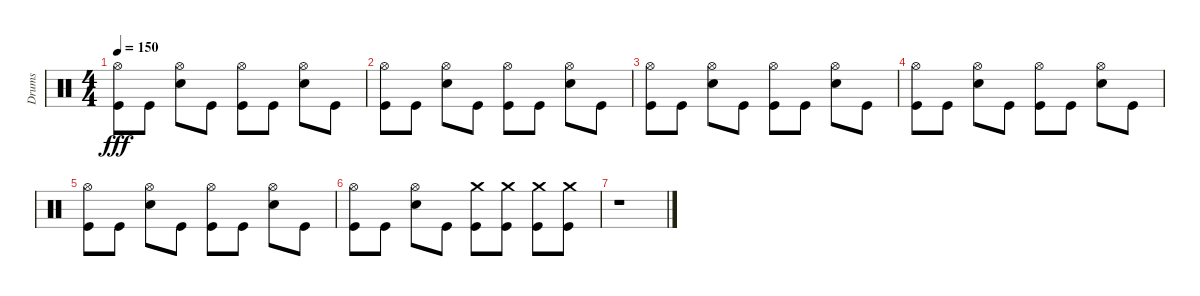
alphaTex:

\track ("Drums" "Drums") {instrument percussion}
\staff {score}
\articulation defaults
\ts (4 4)
\tempo 150
\clef neutral
\ks c
("Hi-Hat (open)" "Kick (hit)").8{dy fff} "Kick (hit)".8 ("Hi-Hat (open)" "Snare (hit) 2").8 "Kick (hit)".8 ("Hi-Hat (open)" "Kick (hit)").8 "Kick (hit)".8 ("Hi-Hat (open)" "Snare (hit) 2").8 "Kick (hit)".8 |
("Hi-Hat (open)" "Kick (hit)").8 "Kick (hit)".8 ("Hi-Hat (open)" "Snare (hit) 2").8 "Kick (hit)".8 ("Hi-Hat (open)" "Kick (hit)").8 "Kick (hit)".8 ("Hi-Hat (open)" "Snare (hit) 2").8 "Kick (hit)".8 |
("Hi-Hat (open)" "Kick (hit)").8 "Kick (hit)".8 ("Hi-Hat (open)" "Snare (hit) 2").8 "Kick (hit)".8 ("Hi-Hat (open)" "Kick (hit)").8 "Kick (hit)".8 ("Hi-Hat (open)" "Snare (hit) 2").8 "Kick (hit)".8 |
("Hi-Hat (open)" "Kick (hit)").8 "Kick (hit)".8 ("Hi-Hat (open)" "Snare (hit) 2").8 "Kick (hit)".8 ("Hi-Hat (open)" "Kick (hit)").8 "Kick (hit)".8 ("Hi-Hat (open)" "Snare (hit) 2").8 "Kick (hit)".8 |
("Hi-Hat (open)" "Kick (hit)").8 "Kick (hit)".8 ("Hi-Hat (open)" "Snare (hit) 2").8 "Kick (hit)".8 ("Hi-Hat (open)" "Kick (hit)").8 "Kick (hit)".8 ("Hi-Hat (open)" "Snare (hit) 2").8 "Kick (hit)".8 |
("Hi-Hat (open)" "Kick (hit)").8 "Kick (hit)".8 ("Snare (hit) 2" "Hi-Hat (open)").8 "Kick (hit)".8 ("Crash medium (hit)" "Kick (hit)").8 ("Kick (hit)" "Crash medium (hit)").8 ("Kick (hit)" "Crash medium (hit)").8 ("Kick (hit)" "Crash medium (hit)").8 |
r.1
